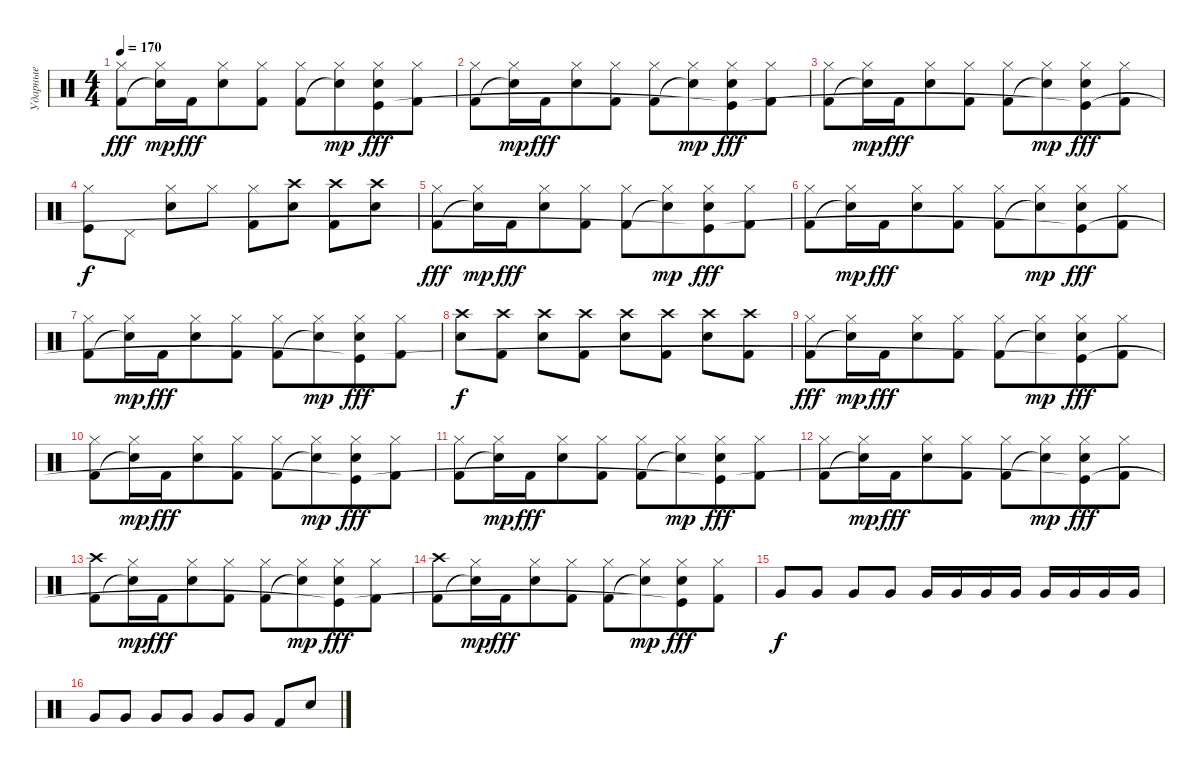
\track ("Ударные" "Ударные") {instrument percussion}
\staff {score}
\articulation defaults
\ts (4 4)
\tempo 170
\clef neutral
\ks c
("Hi-Hat (closed)" "Kick (hit) 2").8{dy fff} ("Hi-Hat (closed)" "Snare (hit)"{t}).16{dy mp} "Kick (hit) 2".16{dy fff beam merge} ("Hi-Hat (closed)" "Electric Snare (hit)").8 ("Hi-Hat (closed)" "Kick (hit) 2").8 ("Hi-Hat (closed)" "Kick (hit) 2").8 ("Hi-Hat (closed)" "Snare (hit)"{t}).8{dy mp beam merge} ("Hi-Hat (closed)" "Electric Snare (hit)" "Kick (hit)"{t}).8{dy fff} ("Hi-Hat (closed)" "Kick (hit) 2").8 |
("Hi-Hat (closed)" "Kick (hit) 2").8 ("Hi-Hat (closed)" "Snare (hit)"{t}).16{dy mp} "Kick (hit) 2".16{dy fff beam merge} ("Hi-Hat (closed)" "Electric Snare (hit)").8 ("Hi-Hat (closed)" "Kick (hit) 2").8 ("Hi-Hat (closed)" "Kick (hit) 2").8 ("Hi-Hat (closed)" "Snare (hit)"{t}).8{dy mp beam merge} ("Hi-Hat (closed)" "Electric Snare (hit)" "Kick (hit)"{t}).8{dy fff} ("Hi-Hat (closed)" "Kick (hit) 2").8 |
("Hi-Hat (closed)" "Kick (hit) 2").8 ("Hi-Hat (closed)" "Snare (hit)"{t}).16{dy mp} "Kick (hit) 2".16{dy fff beam merge} ("Hi-Hat (closed)" "Electric Snare (hit)").8 ("Hi-Hat (closed)" "Kick (hit) 2").8 ("Hi-Hat (closed)" "Kick (hit) 2").8 ("Hi-Hat (closed)" "Snare (hit)"{t}).8{dy mp beam merge} ("Hi-Hat (closed)" "Electric Snare (hit)" "Kick (hit)"{t}).8{dy fff} ("Hi-Hat (closed)" "Kick (hit) 2").8 |
("Kick (hit)" "Hi-Hat (closed)").8{dy f} "Pedal Hi-Hat (hit)".8 ("Electric Snare (hit)" "Hi-Hat (closed)").8 "Hi-Hat (closed)".8 ("Kick (hit) 2" "Hi-Hat (closed)").8 ("Electric Snare (hit)" "Crash high (hit)").8 ("Kick (hit) 2" "Crash high (hit)").8 ("Electric Snare (hit)" "Crash high (hit)").8 |
("Hi-Hat (closed)" "Kick (hit) 2").8{dy fff} ("Hi-Hat (closed)" "Snare (hit)"{t}).16{dy mp} "Kick (hit) 2".16{dy fff beam merge} ("Hi-Hat (closed)" "Electric Snare (hit)").8 ("Hi-Hat (closed)" "Kick (hit) 2").8 ("Hi-Hat (closed)" "Kick (hit) 2").8 ("Hi-Hat (closed)" "Snare (hit)"{t}).8{dy mp beam merge} ("Hi-Hat (closed)" "Electric Snare (hit)" "Kick (hit)"{t}).8{dy fff} ("Hi-Hat (closed)" "Kick (hit) 2").8 |
("Hi-Hat (closed)" "Kick (hit) 2").8 ("Hi-Hat (closed)" "Snare (hit)"{t}).16{dy mp} "Kick (hit) 2".16{dy fff beam merge} ("Hi-Hat (closed)" "Electric Snare (hit)").8 ("Hi-Hat (closed)" "Kick (hit) 2").8 ("Hi-Hat (closed)" "Kick (hit) 2").8 ("Hi-Hat (closed)" "Snare (hit)"{t}).8{dy mp beam merge} ("Hi-Hat (closed)" "Electric Snare (hit)" "Kick (hit)"{t}).8{dy fff} ("Hi-Hat (closed)" "Kick (hit) 2").8 |
("Hi-Hat (closed)" "Kick (hit) 2").8 ("Hi-Hat (closed)" "Snare (hit)"{t}).16{dy mp} "Kick (hit) 2".16{dy fff beam merge} ("Hi-Hat (closed)" "Electric Snare (hit)").8 ("Hi-Hat (closed)" "Kick (hit) 2").8 ("Hi-Hat (closed)" "Kick (hit) 2").8 ("Hi-Hat (closed)" "Snare (hit)"{t}).8{dy mp beam merge} ("Hi-Hat (closed)" "Electric Snare (hit)" "Kick (hit)"{t}).8{dy fff} ("Hi-Hat (closed)" "Kick (hit) 2").8 |
("Electric Snare (hit)" "Crash high (hit)").8{dy f} ("Kick (hit) 2" "Crash high (hit)").8 ("Electric Snare (hit)" "Crash high (hit)").8 ("Kick (hit) 2" "Crash high (hit)").8 ("Electric Snare (hit)" "Crash high (hit)").8 ("Kick (hit) 2" "Crash high (hit)").8 ("Electric Snare (hit)" "Crash high (hit)").8 ("Kick (hit) 2" "Crash high (hit)").8 |
("Hi-Hat (closed)" "Kick (hit) 2").8{dy fff} ("Hi-Hat (closed)" "Snare (hit)"{t}).16{dy mp} "Kick (hit) 2".16{dy fff beam merge} ("Hi-Hat (closed)" "Electric Snare (hit)").8 ("Hi-Hat (closed)" "Kick (hit) 2").8 ("Hi-Hat (closed)" "Kick (hit) 2").8 ("Hi-Hat (closed)" "Snare (hit)"{t}).8{dy mp beam merge} ("Hi-Hat (closed)" "Electric Snare (hit)" "Kick (hit)"{t}).8{dy fff} ("Hi-Hat (closed)" "Kick (hit) 2").8 |
("Hi-Hat (closed)" "Kick (hit) 2").8 ("Hi-Hat (closed)" "Snare (hit)"{t}).16{dy mp} "Kick (hit) 2".16{dy fff beam merge} ("Hi-Hat (closed)" "Electric Snare (hit)").8 ("Hi-Hat (closed)" "Kick (hit) 2").8 ("Hi-Hat (closed)" "Kick (hit) 2").8 ("Hi-Hat (closed)" "Snare (hit)"{t}).8{dy mp beam merge} ("Hi-Hat (closed)" "Electric Snare (hit)" "Kick (hit)"{t}).8{dy fff} ("Hi-Hat (closed)" "Kick (hit) 2").8 |
("Hi-Hat (closed)" "Kick (hit) 2").8 ("Hi-Hat (closed)" "Snare (hit)"{t}).16{dy mp} "Kick (hit) 2".16{dy fff beam merge} ("Hi-Hat (closed)" "Electric Snare (hit)").8 ("Hi-Hat (closed)" "Kick (hit) 2").8 ("Hi-Hat (closed)" "Kick (hit) 2").8 ("Hi-Hat (closed)" "Snare (hit)"{t}).8{dy mp beam merge} ("Hi-Hat (closed)" "Electric Snare (hit)" "Kick (hit)"{t}).8{dy fff} ("Hi-Hat (closed)" "Kick (hit) 2").8 |
("Hi-Hat (closed)" "Kick (hit) 2").8 ("Hi-Hat (closed)" "Snare (hit)"{t}).16{dy mp} "Kick (hit) 2".16{dy fff beam merge} ("Hi-Hat (closed)" "Electric Snare (hit)").8 ("Hi-Hat (closed)" "Kick (hit) 2").8 ("Hi-Hat (closed)" "Kick (hit) 2").8 ("Hi-Hat (closed)" "Snare (hit)"{t}).8{dy mp beam merge} ("Hi-Hat (closed)" "Electric Snare (hit)" "Kick (hit)"{t}).8{dy fff} ("Hi-Hat (closed)" "Kick (hit) 2").8 |
("Crash high (hit)" "Kick (hit) 2").8 ("Hi-Hat (closed)" "Snare (hit)"{t}).16{dy mp} "Kick (hit) 2".16{dy fff beam merge} ("Hi-Hat (closed)" "Electric Snare (hit)").8 ("Hi-Hat (closed)" "Kick (hit) 2").8 ("Hi-Hat (closed)" "Kick (hit) 2").8 ("Hi-Hat (closed)" "Snare (hit)"{t}).8{dy mp beam merge} ("Hi-Hat (closed)" "Electric Snare (hit)" "Kick (hit)"{t}).8{dy fff} ("Hi-Hat (closed)" "Kick (hit) 2").8 |
("Crash high (hit)" "Kick (hit) 2").8 ("Hi-Hat (closed)" "Snare (hit)"{t}).16{dy mp} "Kick (hit) 2".16{dy fff beam merge} ("Hi-Hat (closed)" "Electric Snare (hit)").8 ("Hi-Hat (closed)" "Kick (hit) 2").8 ("Hi-Hat (closed)" "Kick (hit) 2").8 ("Hi-Hat (closed)" "Snare (hit)"{t}).8{dy mp beam merge} ("Hi-Hat (closed)" "Electric Snare (hit)" "Kick (hit)"{t}).8{dy fff} ("Hi-Hat (closed)" "Kick (hit) 2").8 |
"Very Low Tom (hit)".8{dy f} "Very Low Tom (hit)".8 "Very Low Tom (hit)".8 "Very Low Tom (hit)".8 "Very Low Tom (hit)".16 "Very Low Tom (hit)".16 "Very Low Tom (hit)".16 "Very Low Tom (hit)".16 "Very Low Tom (hit)".16 "Very Low Tom (hit)".16 "Very Low Tom (hit)".16 "Very Low Tom (hit)".16 |
"Very Low Tom (hit)".8 "Very Low Tom (hit)".8 "Very Low Tom (hit)".8 "Very Low Tom (hit)".8 "Very Low Tom (hit)".8 "Very Low Tom (hit)".8 "Kick (hit) 2".8 "Electric Snare (hit)".8
